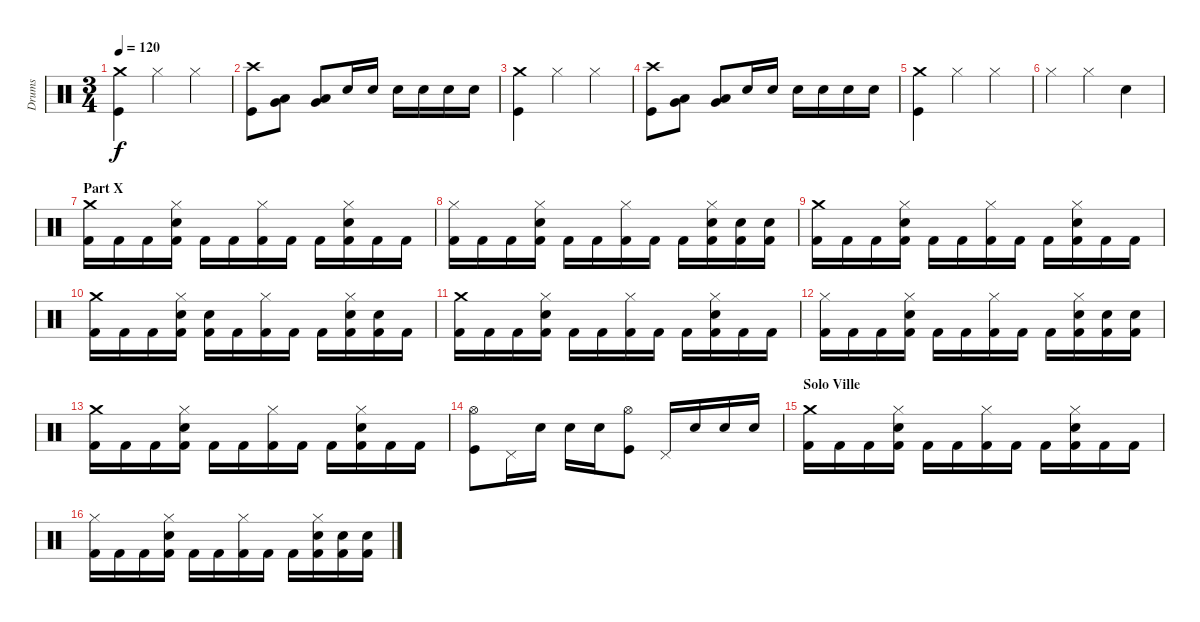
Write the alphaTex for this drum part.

\track ("Drums" "Drums") {instrument percussion}
\staff {score}
\articulation defaults
\ts (3 4)
\tempo 120
\clef neutral
\ks c
("Crash medium (hit)" "Kick (hit)").4{dy f} "Hi-Hat (closed)".4 "Hi-Hat (closed)".4 |
("Crash high (hit)" "Kick (hit)").8 ("Very Low Tom (hit)" "Low Tom (hit)").8 ("Very Low Tom (hit)" "Low Tom (hit)").8 "Electric Snare (hit)".16 "Electric Snare (hit)".16 "Electric Snare (hit)".16 "Electric Snare (hit)".16 "Electric Snare (hit)".16 "Electric Snare (hit)".16 |
("Crash medium (hit)" "Kick (hit)").4 "Hi-Hat (closed)".4 "Hi-Hat (closed)".4 |
("Crash high (hit)" "Kick (hit)").8 ("Very Low Tom (hit)" "Low Tom (hit)").8 ("Very Low Tom (hit)" "Low Tom (hit)").8 "Electric Snare (hit)".16 "Electric Snare (hit)".16 "Electric Snare (hit)".16 "Electric Snare (hit)".16 "Electric Snare (hit)".16 "Electric Snare (hit)".16 |
("Crash medium (hit)" "Kick (hit)").4 "Hi-Hat (closed)".4 "Hi-Hat (closed)".4 |
"Hi-Hat (closed)".4 "Hi-Hat (closed)".4 "Electric Snare (hit)".4 |
\section ("" "Part X")
("Crash medium (hit)" "Kick (hit) 2").16 "Kick (hit) 2".16 "Kick (hit) 2".16 ("Hi-Hat (closed)" "Electric Snare (hit)" "Kick (hit) 2").16 "Kick (hit) 2".16 "Kick (hit) 2".16 ("Hi-Hat (closed)" "Kick (hit) 2").16 "Kick (hit) 2".16 "Kick (hit) 2".16 ("Hi-Hat (closed)" "Electric Snare (hit)" "Kick (hit) 2").16 "Kick (hit) 2".16 "Kick (hit) 2".16 |
("Hi-Hat (closed)" "Kick (hit) 2").16 "Kick (hit) 2".16 "Kick (hit) 2".16 ("Hi-Hat (closed)" "Electric Snare (hit)" "Kick (hit) 2").16 "Kick (hit) 2".16 "Kick (hit) 2".16 ("Hi-Hat (closed)" "Kick (hit) 2").16 "Kick (hit) 2".16 "Kick (hit) 2".16 ("Hi-Hat (closed)" "Electric Snare (hit)" "Kick (hit) 2").16 ("Electric Snare (hit)" "Kick (hit) 2").16 ("Electric Snare (hit)" "Kick (hit) 2").16 |
("Crash medium (hit)" "Kick (hit) 2").16 "Kick (hit) 2".16 "Kick (hit) 2".16 ("Hi-Hat (closed)" "Electric Snare (hit)" "Kick (hit) 2").16 "Kick (hit) 2".16 "Kick (hit) 2".16 ("Hi-Hat (closed)" "Kick (hit) 2").16 "Kick (hit) 2".16 "Kick (hit) 2".16 ("Hi-Hat (closed)" "Electric Snare (hit)" "Kick (hit) 2").16 "Kick (hit) 2".16 "Kick (hit) 2".16 |
("Crash medium (hit)" "Kick (hit) 2").16 "Kick (hit) 2".16 "Kick (hit) 2".16 ("Hi-Hat (closed)" "Electric Snare (hit)" "Kick (hit) 2").16 ("Electric Snare (hit)" "Kick (hit) 2").16 "Kick (hit) 2".16 ("Hi-Hat (closed)" "Kick (hit) 2").16 "Kick (hit) 2".16 "Kick (hit) 2".16 ("Hi-Hat (closed)" "Electric Snare (hit)" "Kick (hit) 2").16 ("Electric Snare (hit)" "Kick (hit) 2").16 "Kick (hit) 2".16 |
("Crash medium (hit)" "Kick (hit) 2").16 "Kick (hit) 2".16 "Kick (hit) 2".16 ("Hi-Hat (closed)" "Electric Snare (hit)" "Kick (hit) 2").16 "Kick (hit) 2".16 "Kick (hit) 2".16 ("Hi-Hat (closed)" "Kick (hit) 2").16 "Kick (hit) 2".16 "Kick (hit) 2".16 ("Hi-Hat (closed)" "Electric Snare (hit)" "Kick (hit) 2").16 "Kick (hit) 2".16 "Kick (hit) 2".16 |
("Hi-Hat (closed)" "Kick (hit) 2").16 "Kick (hit) 2".16 "Kick (hit) 2".16 ("Hi-Hat (closed)" "Electric Snare (hit)" "Kick (hit) 2").16 "Kick (hit) 2".16 "Kick (hit) 2".16 ("Hi-Hat (closed)" "Kick (hit) 2").16 "Kick (hit) 2".16 "Kick (hit) 2".16 ("Hi-Hat (closed)" "Electric Snare (hit)" "Kick (hit) 2").16 ("Electric Snare (hit)" "Kick (hit) 2").16 ("Electric Snare (hit)" "Kick (hit) 2").16 |
("Crash medium (hit)" "Kick (hit) 2").16 "Kick (hit) 2".16 "Kick (hit) 2".16 ("Hi-Hat (closed)" "Electric Snare (hit)" "Kick (hit) 2").16 "Kick (hit) 2".16 "Kick (hit) 2".16 ("Hi-Hat (closed)" "Kick (hit) 2").16 "Kick (hit) 2".16 "Kick (hit) 2".16 ("Hi-Hat (closed)" "Electric Snare (hit)" "Kick (hit) 2").16 "Kick (hit) 2".16 "Kick (hit) 2".16 |
("Hi-Hat (open)" "Kick (hit)").8 "Pedal Hi-Hat (hit)".16 "Electric Snare (hit)".16 "Electric Snare (hit)".16 "Electric Snare (hit)".16 ("Hi-Hat (open)" "Kick (hit)").8 "Pedal Hi-Hat (hit)".16 "Electric Snare (hit)".16 "Electric Snare (hit)".16 "Electric Snare (hit)".16 |
\section ("" "Solo Ville")
("Crash medium (hit)" "Kick (hit) 2").16 "Kick (hit) 2".16 "Kick (hit) 2".16 ("Hi-Hat (closed)" "Electric Snare (hit)" "Kick (hit) 2").16 "Kick (hit) 2".16 "Kick (hit) 2".16 ("Hi-Hat (closed)" "Kick (hit) 2").16 "Kick (hit) 2".16 "Kick (hit) 2".16 ("Hi-Hat (closed)" "Electric Snare (hit)" "Kick (hit) 2").16 "Kick (hit) 2".16 "Kick (hit) 2".16 |
("Hi-Hat (closed)" "Kick (hit) 2").16 "Kick (hit) 2".16 "Kick (hit) 2".16 ("Hi-Hat (closed)" "Electric Snare (hit)" "Kick (hit) 2").16 "Kick (hit) 2".16 "Kick (hit) 2".16 ("Hi-Hat (closed)" "Kick (hit) 2").16 "Kick (hit) 2".16 "Kick (hit) 2".16 ("Hi-Hat (closed)" "Electric Snare (hit)" "Kick (hit) 2").16 ("Electric Snare (hit)" "Kick (hit) 2").16 ("Electric Snare (hit)" "Kick (hit) 2").16
